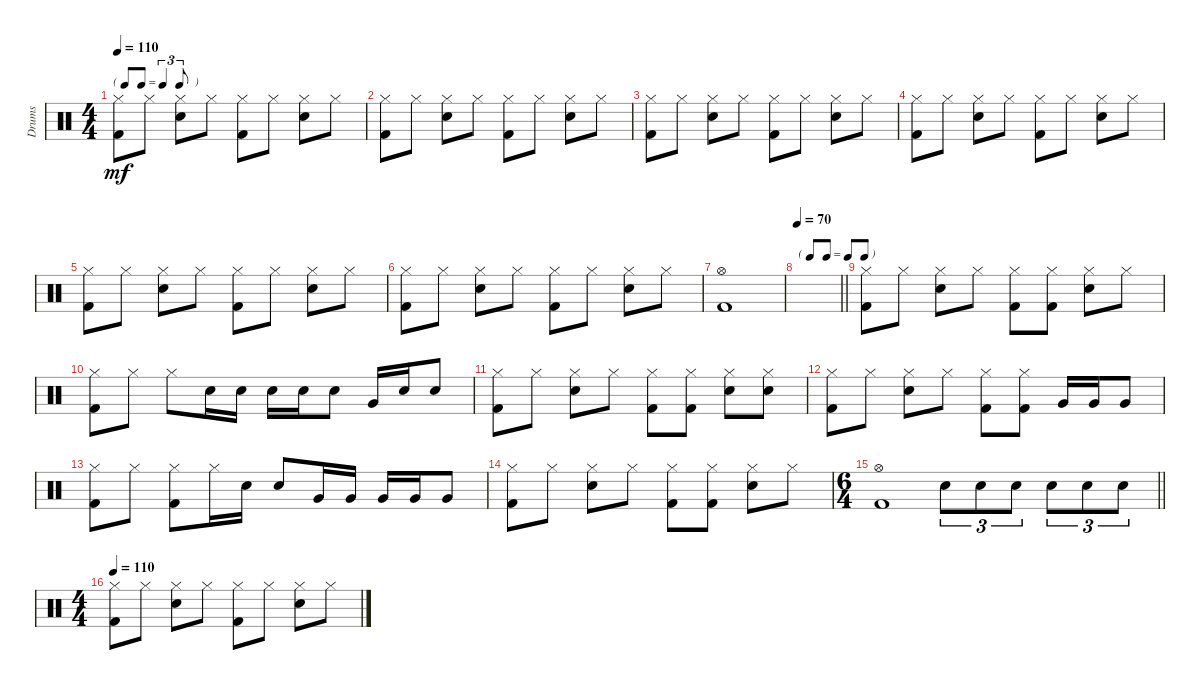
\track ("Drums" "Drums") {instrument percussion}
\staff {score}
\articulation defaults
\ts (4 4)
\tf triplet8th
\tempo 110
\clef neutral
\ks c
("Hi-Hat (closed)" "Kick (hit) 2").8{dy mf} "Hi-Hat (closed)".8 ("Hi-Hat (closed)" "Snare (hit) 2").8 "Hi-Hat (closed)".8 ("Hi-Hat (closed)" "Kick (hit) 2").8 "Hi-Hat (closed)".8 ("Hi-Hat (closed)" "Snare (hit) 2").8 "Hi-Hat (closed)".8 |
("Hi-Hat (closed)" "Kick (hit) 2").8 "Hi-Hat (closed)".8 ("Hi-Hat (closed)" "Snare (hit) 2").8 "Hi-Hat (closed)".8 ("Hi-Hat (closed)" "Kick (hit) 2").8 "Hi-Hat (closed)".8 ("Hi-Hat (closed)" "Snare (hit) 2").8 "Hi-Hat (closed)".8 |
("Hi-Hat (closed)" "Kick (hit) 2").8 "Hi-Hat (closed)".8 ("Hi-Hat (closed)" "Snare (hit) 2").8 "Hi-Hat (closed)".8 ("Hi-Hat (closed)" "Kick (hit) 2").8 "Hi-Hat (closed)".8 ("Hi-Hat (closed)" "Snare (hit) 2").8 "Hi-Hat (closed)".8 |
("Hi-Hat (closed)" "Kick (hit) 2").8 "Hi-Hat (closed)".8 ("Hi-Hat (closed)" "Snare (hit) 2").8 "Hi-Hat (closed)".8 ("Hi-Hat (closed)" "Kick (hit) 2").8 "Hi-Hat (closed)".8 ("Hi-Hat (closed)" "Snare (hit) 2").8 "Hi-Hat (closed)".8 |
("Hi-Hat (closed)" "Kick (hit) 2").8 "Hi-Hat (closed)".8 ("Hi-Hat (closed)" "Snare (hit) 2").8 "Hi-Hat (closed)".8 ("Hi-Hat (closed)" "Kick (hit) 2").8 "Hi-Hat (closed)".8 ("Hi-Hat (closed)" "Snare (hit) 2").8 "Hi-Hat (closed)".8 |
("Hi-Hat (closed)" "Kick (hit) 2").8 "Hi-Hat (closed)".8 ("Hi-Hat (closed)" "Snare (hit) 2").8 "Hi-Hat (closed)".8 ("Hi-Hat (closed)" "Kick (hit) 2").8 "Hi-Hat (closed)".8 ("Hi-Hat (closed)" "Snare (hit) 2").8 "Hi-Hat (closed)".8 |
("Hi-Hat (open)" "Kick (hit) 2").1 |
\tf none
\tempo 70
\barLineRight lightlight
|
("Hi-Hat (closed)" "Kick (hit) 2").8 "Hi-Hat (closed)".8 ("Hi-Hat (closed)" "Snare (hit) 2").8 "Hi-Hat (closed)".8 ("Hi-Hat (closed)" "Kick (hit) 2").8 ("Hi-Hat (closed)" "Kick (hit) 2").8 ("Hi-Hat (closed)" "Snare (hit) 2").8 "Hi-Hat (closed)".8 |
("Hi-Hat (closed)" "Kick (hit) 2").8 "Hi-Hat (closed)".8 "Hi-Hat (closed)".8 "Snare (hit) 2".16 "Snare (hit) 2".16 "Snare (hit) 2".16 "Snare (hit) 2".16 "Snare (hit) 2".8 "Very Low Tom (hit)".16 "Snare (hit) 2".16 "Snare (hit) 2".8 |
("Hi-Hat (closed)" "Kick (hit) 2").8 "Hi-Hat (closed)".8 ("Hi-Hat (closed)" "Snare (hit) 2").8 "Hi-Hat (closed)".8 ("Hi-Hat (closed)" "Kick (hit) 2").8 ("Hi-Hat (closed)" "Kick (hit) 2").8 ("Hi-Hat (closed)" "Snare (hit) 2").8 ("Hi-Hat (closed)" "Snare (hit) 2").8 |
("Hi-Hat (closed)" "Kick (hit) 2").8 "Hi-Hat (closed)".8 ("Hi-Hat (closed)" "Snare (hit) 2").8 "Hi-Hat (closed)".8 ("Hi-Hat (closed)" "Kick (hit) 2").8 ("Hi-Hat (closed)" "Kick (hit) 2").8 "Very Low Tom (hit)".16 "Very Low Tom (hit)".16 "Very Low Tom (hit)".8 |
("Hi-Hat (closed)" "Kick (hit) 2").8 "Hi-Hat (closed)".8 ("Hi-Hat (closed)" "Kick (hit) 2").8 "Hi-Hat (closed)".16 "Snare (hit) 2".16 "Snare (hit) 2".8 "Very Low Tom (hit)".16 "Very Low Tom (hit)".16 "Very Low Tom (hit)".16 "Very Low Tom (hit)".16 "Very Low Tom (hit)".8 |
("Hi-Hat (closed)" "Kick (hit) 2").8 "Hi-Hat (closed)".8 ("Hi-Hat (closed)" "Snare (hit) 2").8 "Hi-Hat (closed)".8 ("Hi-Hat (closed)" "Kick (hit) 2").8 ("Hi-Hat (closed)" "Kick (hit) 2").8 ("Hi-Hat (closed)" "Snare (hit) 2").8 "Hi-Hat (closed)".8 |
\ts (6 4)
\barLineRight lightlight
("Hi-Hat (open)" "Kick (hit) 2").1 "Snare (hit) 2".8{tu (3 2)} "Snare (hit) 2".8{tu (3 2)} "Snare (hit) 2".8{tu (3 2)} "Snare (hit) 2".8{tu (3 2)} "Snare (hit) 2".8{tu (3 2)} "Snare (hit) 2".8{tu (3 2)} |
\ts (4 4)
\tempo 110
("Hi-Hat (closed)" "Kick (hit) 2").8 "Hi-Hat (closed)".8 ("Hi-Hat (closed)" "Snare (hit) 2").8 "Hi-Hat (closed)".8 ("Hi-Hat (closed)" "Kick (hit) 2").8 "Hi-Hat (closed)".8 ("Hi-Hat (closed)" "Snare (hit) 2").8 "Hi-Hat (closed)".8
